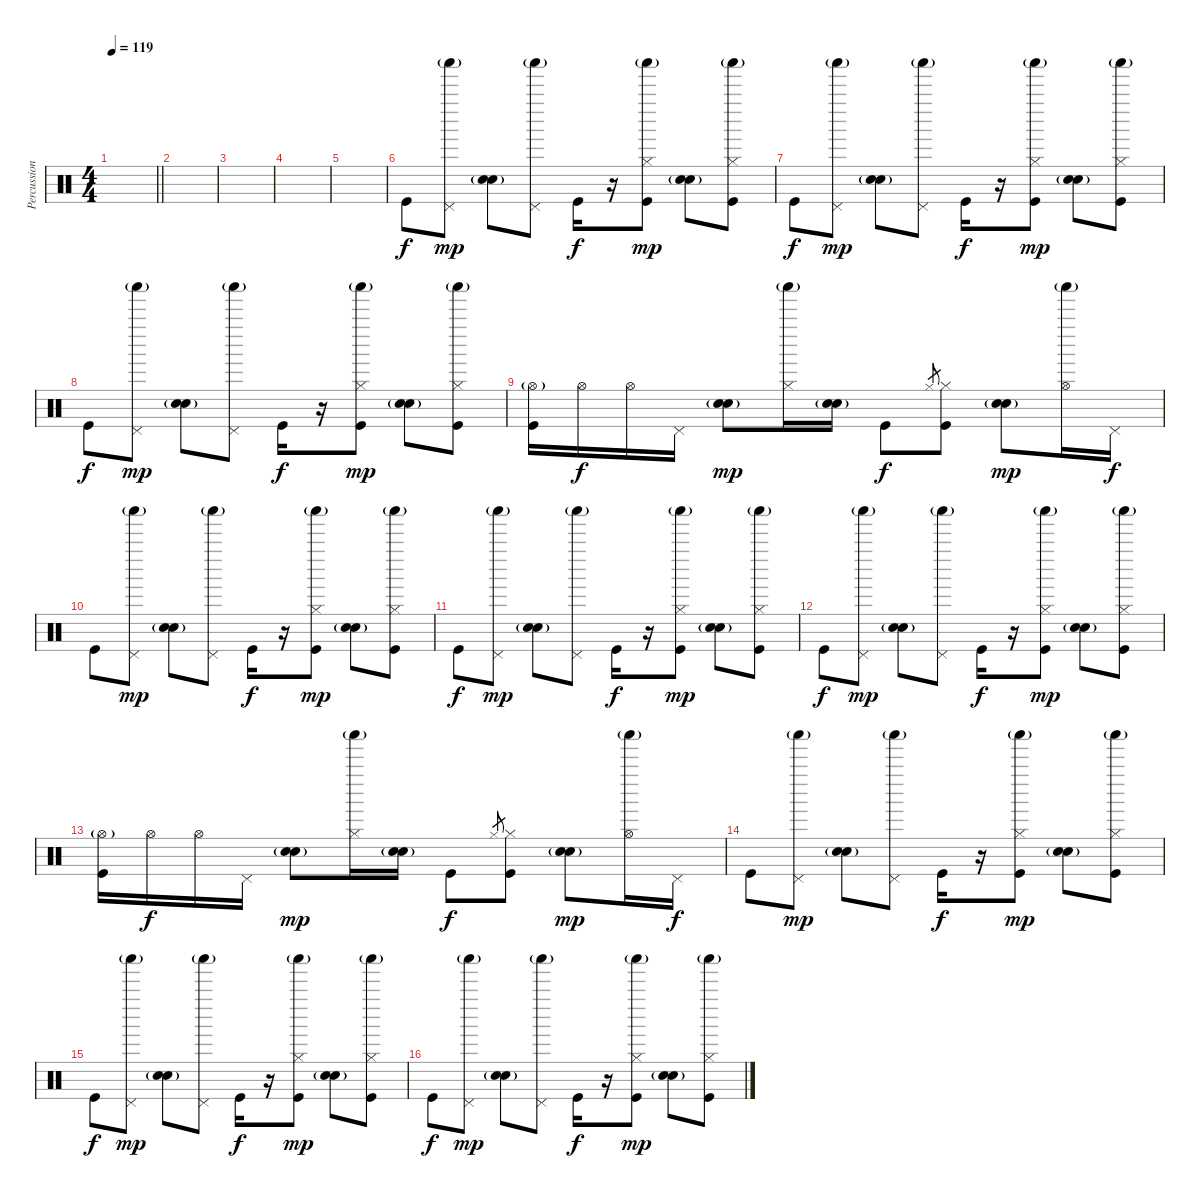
\track ("Percussioni" "Percussion") {instrument percussion}
\staff {score}
\articulation defaults
\ts (4 4)
\tempo 119
\clef neutral
\barLineRight lightlight
\ks c
|
|
|
|
|
"Kick (hit)".8 ("Pedal Hi-Hat (hit)" "Shaker (hit)"{g}).8{dy mp} ("Hand Clap (hit)"{g} "Electric Snare (hit)").8 ("Pedal Hi-Hat (hit)" "Shaker (hit)"{g}).8 "Kick (hit)".16{dy f} r.16 ("Hi-Hat (closed)" "Shaker (hit)"{g} "Kick (hit)").8{dy mp} ("Hand Clap (hit)"{g} "Electric Snare (hit)").8 ("Hi-Hat (closed)" "Shaker (hit)"{g} "Kick (hit)").8 |
"Kick (hit)".8{dy f} ("Pedal Hi-Hat (hit)" "Shaker (hit)"{g}).8{dy mp} ("Hand Clap (hit)"{g} "Electric Snare (hit)").8 ("Pedal Hi-Hat (hit)" "Shaker (hit)"{g}).8 "Kick (hit)".16{dy f} r.16 ("Hi-Hat (closed)" "Shaker (hit)"{g} "Kick (hit)").8{dy mp} ("Hand Clap (hit)"{g} "Electric Snare (hit)").8 ("Hi-Hat (closed)" "Shaker (hit)"{g} "Kick (hit)").8 |
"Kick (hit)".8{dy f} ("Pedal Hi-Hat (hit)" "Shaker (hit)"{g}).8{dy mp} ("Hand Clap (hit)"{g} "Electric Snare (hit)").8 ("Pedal Hi-Hat (hit)" "Shaker (hit)"{g}).8 "Kick (hit)".16{dy f} r.16 ("Hi-Hat (closed)" "Shaker (hit)"{g} "Kick (hit)").8{dy mp} ("Hand Clap (hit)"{g} "Electric Snare (hit)").8 ("Hi-Hat (closed)" "Shaker (hit)"{g} "Kick (hit)").8 |
("Hi-Hat (open)"{g} "Kick (hit)").16 "Hi-Hat (open)".16{dy f} "Hi-Hat (open)".16 "Pedal Hi-Hat (hit)".16 ("Hand Clap (hit)"{g} "Electric Snare (hit)").8{dy mp} ("Hi-Hat (closed)" "Shaker (hit)"{g}).16 ("Electric Snare (hit)" "Hand Clap (hit)"{g}).16 "Kick (hit)".8{dy f} "Hi-Hat (closed)".8{gr} ("Hi-Hat (closed)" "Kick (hit)").8 ("Hand Clap (hit)"{g} "Electric Snare (hit)").8{dy mp} ("Hi-Hat (open)" "Shaker (hit)"{g}).16 "Pedal Hi-Hat (hit)".16{dy f} |
"Kick (hit)".8 ("Pedal Hi-Hat (hit)" "Shaker (hit)"{g}).8{dy mp} ("Hand Clap (hit)"{g} "Electric Snare (hit)").8 ("Pedal Hi-Hat (hit)" "Shaker (hit)"{g}).8 "Kick (hit)".16{dy f} r.16 ("Hi-Hat (closed)" "Shaker (hit)"{g} "Kick (hit)").8{dy mp} ("Hand Clap (hit)"{g} "Electric Snare (hit)").8 ("Hi-Hat (closed)" "Shaker (hit)"{g} "Kick (hit)").8 |
"Kick (hit)".8{dy f} ("Pedal Hi-Hat (hit)" "Shaker (hit)"{g}).8{dy mp} ("Hand Clap (hit)"{g} "Electric Snare (hit)").8 ("Pedal Hi-Hat (hit)" "Shaker (hit)"{g}).8 "Kick (hit)".16{dy f} r.16 ("Hi-Hat (closed)" "Shaker (hit)"{g} "Kick (hit)").8{dy mp} ("Hand Clap (hit)"{g} "Electric Snare (hit)").8 ("Hi-Hat (closed)" "Shaker (hit)"{g} "Kick (hit)").8 |
"Kick (hit)".8{dy f} ("Pedal Hi-Hat (hit)" "Shaker (hit)"{g}).8{dy mp} ("Hand Clap (hit)"{g} "Electric Snare (hit)").8 ("Pedal Hi-Hat (hit)" "Shaker (hit)"{g}).8 "Kick (hit)".16{dy f} r.16 ("Hi-Hat (closed)" "Shaker (hit)"{g} "Kick (hit)").8{dy mp} ("Hand Clap (hit)"{g} "Electric Snare (hit)").8 ("Hi-Hat (closed)" "Shaker (hit)"{g} "Kick (hit)").8 |
("Hi-Hat (open)"{g} "Kick (hit)").16 "Hi-Hat (open)".16{dy f} "Hi-Hat (open)".16 "Pedal Hi-Hat (hit)".16 ("Hand Clap (hit)"{g} "Electric Snare (hit)").8{dy mp} ("Hi-Hat (closed)" "Shaker (hit)"{g}).16 ("Electric Snare (hit)" "Hand Clap (hit)"{g}).16 "Kick (hit)".8{dy f} "Hi-Hat (closed)".8{gr} ("Hi-Hat (closed)" "Kick (hit)").8 ("Hand Clap (hit)"{g} "Electric Snare (hit)").8{dy mp} ("Hi-Hat (open)" "Shaker (hit)"{g}).16 "Pedal Hi-Hat (hit)".16{dy f} |
"Kick (hit)".8 ("Pedal Hi-Hat (hit)" "Shaker (hit)"{g}).8{dy mp} ("Hand Clap (hit)"{g} "Electric Snare (hit)").8 ("Pedal Hi-Hat (hit)" "Shaker (hit)"{g}).8 "Kick (hit)".16{dy f} r.16 ("Hi-Hat (closed)" "Shaker (hit)"{g} "Kick (hit)").8{dy mp} ("Hand Clap (hit)"{g} "Electric Snare (hit)").8 ("Hi-Hat (closed)" "Shaker (hit)"{g} "Kick (hit)").8 |
"Kick (hit)".8{dy f} ("Pedal Hi-Hat (hit)" "Shaker (hit)"{g}).8{dy mp} ("Hand Clap (hit)"{g} "Electric Snare (hit)").8 ("Pedal Hi-Hat (hit)" "Shaker (hit)"{g}).8 "Kick (hit)".16{dy f} r.16 ("Hi-Hat (closed)" "Shaker (hit)"{g} "Kick (hit)").8{dy mp} ("Hand Clap (hit)"{g} "Electric Snare (hit)").8 ("Hi-Hat (closed)" "Shaker (hit)"{g} "Kick (hit)").8 |
"Kick (hit)".8{dy f} ("Pedal Hi-Hat (hit)" "Shaker (hit)"{g}).8{dy mp} ("Hand Clap (hit)"{g} "Electric Snare (hit)").8 ("Pedal Hi-Hat (hit)" "Shaker (hit)"{g}).8 "Kick (hit)".16{dy f} r.16 ("Hi-Hat (closed)" "Shaker (hit)"{g} "Kick (hit)").8{dy mp} ("Hand Clap (hit)"{g} "Electric Snare (hit)").8 ("Hi-Hat (closed)" "Shaker (hit)"{g} "Kick (hit)").8
